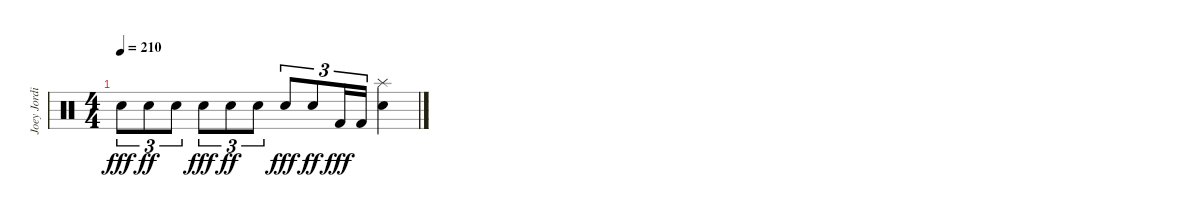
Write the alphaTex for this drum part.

\track ("Joey Jordison" "Joey Jordi") {instrument percussion}
\staff {score}
\articulation defaults
\ts (4 4)
\tempo 210
\clef neutral
\ks c "Electric Snare (hit)".8{tu (3 2) dy fff} "Electric Snare (hit)".8{tu (3 2) dy ff} "Electric Snare (hit)".8{tu (3 2)} "Electric Snare (hit)".8{tu (3 2) dy fff} "Electric Snare (hit)".8{tu (3 2) dy ff} "Electric Snare (hit)".8{tu (3 2)} "Electric Snare (hit)".8{tu (3 2) dy fff} "Electric Snare (hit)".8{tu (3 2) dy ff} "Kick (hit) 2".16{tu (3 2) dy fff} "Kick (hit) 2".16{tu (3 2)}
("Splash (hit)" "Electric Snare (hit)").4
